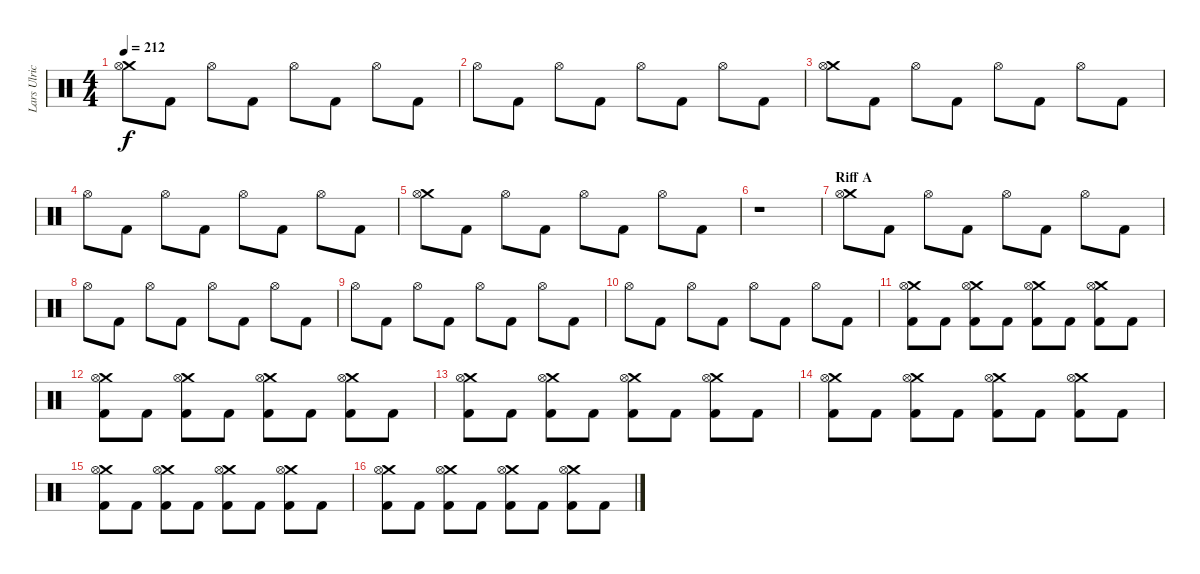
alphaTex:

\track ("Lars Ulrich" "Lars Ulric") {instrument percussion}
\staff {score}
\articulation defaults
\ts (4 4)
\tempo 212
\clef neutral
\ks c
("Crash medium (hit)" "Hi-Hat (open)").8{dy f} "Kick (hit) 2".8 "Hi-Hat (open)".8 "Kick (hit) 2".8 "Hi-Hat (open)".8 "Kick (hit) 2".8 "Hi-Hat (open)".8 "Kick (hit) 2".8 |
"Hi-Hat (open)".8 "Kick (hit) 2".8 "Hi-Hat (open)".8 "Kick (hit) 2".8 "Hi-Hat (open)".8 "Kick (hit) 2".8 "Hi-Hat (open)".8 "Kick (hit) 2".8 |
("Crash medium (hit)" "Hi-Hat (open)").8 "Kick (hit) 2".8 "Hi-Hat (open)".8 "Kick (hit) 2".8 "Hi-Hat (open)".8 "Kick (hit) 2".8 "Hi-Hat (open)".8 "Kick (hit) 2".8 |
"Hi-Hat (open)".8 "Kick (hit) 2".8 "Hi-Hat (open)".8 "Kick (hit) 2".8 "Hi-Hat (open)".8 "Kick (hit) 2".8 "Hi-Hat (open)".8 "Kick (hit) 2".8 |
("Crash medium (hit)" "Hi-Hat (open)").8 "Kick (hit) 2".8 "Hi-Hat (open)".8 "Kick (hit) 2".8 "Hi-Hat (open)".8 "Kick (hit) 2".8 "Hi-Hat (open)".8 "Kick (hit) 2".8 |
r.1 |
\section ("" "Riff A")
("Crash medium (hit)" "Hi-Hat (open)").8 "Kick (hit) 2".8 "Hi-Hat (open)".8 "Kick (hit) 2".8 "Hi-Hat (open)".8 "Kick (hit) 2".8 "Hi-Hat (open)".8 "Kick (hit) 2".8 |
"Hi-Hat (open)".8 "Kick (hit) 2".8 "Hi-Hat (open)".8 "Kick (hit) 2".8 "Hi-Hat (open)".8 "Kick (hit) 2".8 "Hi-Hat (open)".8 "Kick (hit) 2".8 |
"Hi-Hat (open)".8 "Kick (hit) 2".8 "Hi-Hat (open)".8 "Kick (hit) 2".8 "Hi-Hat (open)".8 "Kick (hit) 2".8 "Hi-Hat (open)".8 "Kick (hit) 2".8 |
"Hi-Hat (open)".8 "Kick (hit) 2".8 "Hi-Hat (open)".8 "Kick (hit) 2".8 "Hi-Hat (open)".8 "Kick (hit) 2".8 "Hi-Hat (open)".8 "Kick (hit) 2".8 |
("Crash medium (hit)" "Hi-Hat (open)" "Kick (hit) 2").8 "Kick (hit) 2".8 ("Crash medium (hit)" "Hi-Hat (open)" "Kick (hit) 2").8 "Kick (hit) 2".8 ("Crash medium (hit)" "Hi-Hat (open)" "Kick (hit) 2").8 "Kick (hit) 2".8 ("Crash medium (hit)" "Hi-Hat (open)" "Kick (hit) 2").8 "Kick (hit) 2".8 |
("Crash medium (hit)" "Hi-Hat (open)" "Kick (hit) 2").8 "Kick (hit) 2".8 ("Crash medium (hit)" "Hi-Hat (open)" "Kick (hit) 2").8 "Kick (hit) 2".8 ("Crash medium (hit)" "Hi-Hat (open)" "Kick (hit) 2").8 "Kick (hit) 2".8 ("Crash medium (hit)" "Hi-Hat (open)" "Kick (hit) 2").8 "Kick (hit) 2".8 |
("Crash medium (hit)" "Hi-Hat (open)" "Kick (hit) 2").8 "Kick (hit) 2".8 ("Crash medium (hit)" "Hi-Hat (open)" "Kick (hit) 2").8 "Kick (hit) 2".8 ("Crash medium (hit)" "Hi-Hat (open)" "Kick (hit) 2").8 "Kick (hit) 2".8 ("Crash medium (hit)" "Hi-Hat (open)" "Kick (hit) 2").8 "Kick (hit) 2".8 |
("Crash medium (hit)" "Hi-Hat (open)" "Kick (hit) 2").8 "Kick (hit) 2".8 ("Crash medium (hit)" "Hi-Hat (open)" "Kick (hit) 2").8 "Kick (hit) 2".8 ("Crash medium (hit)" "Hi-Hat (open)" "Kick (hit) 2").8 "Kick (hit) 2".8 ("Crash medium (hit)" "Hi-Hat (open)" "Kick (hit) 2").8 "Kick (hit) 2".8 |
("Crash medium (hit)" "Hi-Hat (open)" "Kick (hit) 2").8 "Kick (hit) 2".8 ("Crash medium (hit)" "Hi-Hat (open)" "Kick (hit) 2").8 "Kick (hit) 2".8 ("Crash medium (hit)" "Hi-Hat (open)" "Kick (hit) 2").8 "Kick (hit) 2".8 ("Crash medium (hit)" "Hi-Hat (open)" "Kick (hit) 2").8 "Kick (hit) 2".8 |
("Crash medium (hit)" "Hi-Hat (open)" "Kick (hit) 2").8 "Kick (hit) 2".8 ("Crash medium (hit)" "Hi-Hat (open)" "Kick (hit) 2").8 "Kick (hit) 2".8 ("Crash medium (hit)" "Hi-Hat (open)" "Kick (hit) 2").8 "Kick (hit) 2".8 ("Crash medium (hit)" "Hi-Hat (open)" "Kick (hit) 2").8 "Kick (hit) 2".8
